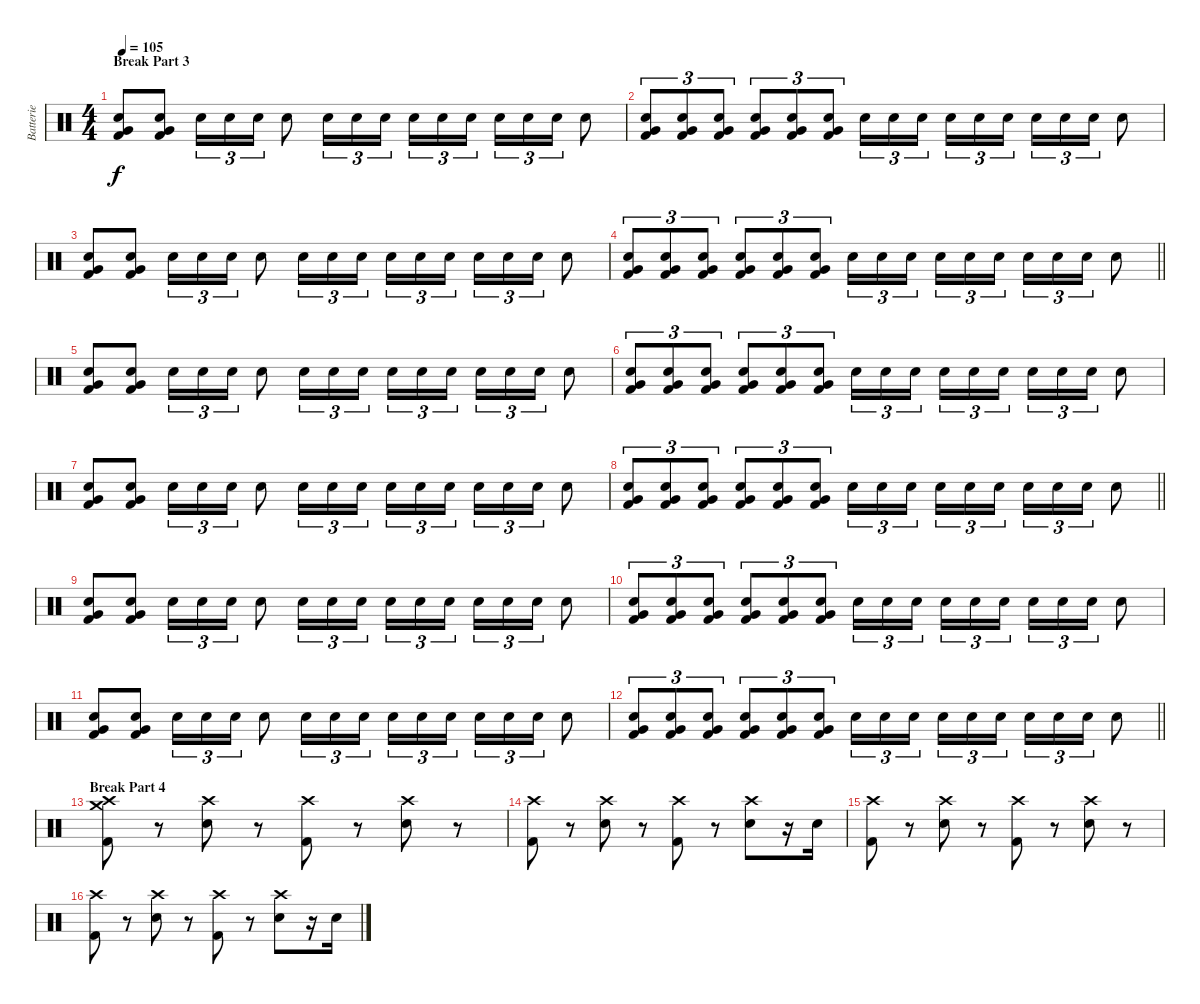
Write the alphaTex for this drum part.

\track ("Batterie" "Batterie") {instrument percussion}
\staff {score}
\articulation defaults
\ts (4 4)
\section ("" "Break Part 3")
\tempo 105
\clef neutral
\ks c
("Kick (hit) 2" "Electric Snare (hit)" "Very Low Tom (hit)").8{dy f} ("Kick (hit) 2" "Electric Snare (hit)" "Very Low Tom (hit)").8 "Electric Snare (hit)".16{tu (3 2)} "Electric Snare (hit)".16{tu (3 2)} "Electric Snare (hit)".16{tu (3 2)} "Electric Snare (hit)".8 "Electric Snare (hit)".16{tu (3 2)} "Electric Snare (hit)".16{tu (3 2)} "Electric Snare (hit)".16{tu (3 2) beam splitsecondary} "Electric Snare (hit)".16{tu (3 2)} "Electric Snare (hit)".16{tu (3 2)} "Electric Snare (hit)".16{tu (3 2)} "Electric Snare (hit)".16{tu (3 2)} "Electric Snare (hit)".16{tu (3 2)} "Electric Snare (hit)".16{tu (3 2)} "Electric Snare (hit)".8 |
("Kick (hit) 2" "Electric Snare (hit)" "Very Low Tom (hit)").8{tu (3 2)} ("Kick (hit) 2" "Electric Snare (hit)" "Very Low Tom (hit)").8{tu (3 2)} ("Kick (hit) 2" "Electric Snare (hit)" "Very Low Tom (hit)").8{tu (3 2)} ("Kick (hit) 2" "Electric Snare (hit)" "Very Low Tom (hit)").8{tu (3 2)} ("Kick (hit) 2" "Electric Snare (hit)" "Very Low Tom (hit)").8{tu (3 2)} ("Kick (hit) 2" "Electric Snare (hit)" "Very Low Tom (hit)").8{tu (3 2)} "Electric Snare (hit)".16{tu (3 2)} "Electric Snare (hit)".16{tu (3 2)} "Electric Snare (hit)".16{tu (3 2) beam splitsecondary} "Electric Snare (hit)".16{tu (3 2)} "Electric Snare (hit)".16{tu (3 2)} "Electric Snare (hit)".16{tu (3 2)} "Electric Snare (hit)".16{tu (3 2)} "Electric Snare (hit)".16{tu (3 2)} "Electric Snare (hit)".16{tu (3 2)} "Electric Snare (hit)".8 |
("Kick (hit) 2" "Electric Snare (hit)" "Very Low Tom (hit)").8 ("Kick (hit) 2" "Electric Snare (hit)" "Very Low Tom (hit)").8 "Electric Snare (hit)".16{tu (3 2)} "Electric Snare (hit)".16{tu (3 2)} "Electric Snare (hit)".16{tu (3 2)} "Electric Snare (hit)".8 "Electric Snare (hit)".16{tu (3 2)} "Electric Snare (hit)".16{tu (3 2)} "Electric Snare (hit)".16{tu (3 2) beam splitsecondary} "Electric Snare (hit)".16{tu (3 2)} "Electric Snare (hit)".16{tu (3 2)} "Electric Snare (hit)".16{tu (3 2)} "Electric Snare (hit)".16{tu (3 2)} "Electric Snare (hit)".16{tu (3 2)} "Electric Snare (hit)".16{tu (3 2)} "Electric Snare (hit)".8 |
\barLineRight lightlight
("Kick (hit) 2" "Electric Snare (hit)" "Very Low Tom (hit)").8{tu (3 2)} ("Kick (hit) 2" "Electric Snare (hit)" "Very Low Tom (hit)").8{tu (3 2)} ("Kick (hit) 2" "Electric Snare (hit)" "Very Low Tom (hit)").8{tu (3 2)} ("Kick (hit) 2" "Electric Snare (hit)" "Very Low Tom (hit)").8{tu (3 2)} ("Kick (hit) 2" "Electric Snare (hit)" "Very Low Tom (hit)").8{tu (3 2)} ("Kick (hit) 2" "Electric Snare (hit)" "Very Low Tom (hit)").8{tu (3 2)} "Electric Snare (hit)".16{tu (3 2)} "Electric Snare (hit)".16{tu (3 2)} "Electric Snare (hit)".16{tu (3 2) beam splitsecondary} "Electric Snare (hit)".16{tu (3 2)} "Electric Snare (hit)".16{tu (3 2)} "Electric Snare (hit)".16{tu (3 2)} "Electric Snare (hit)".16{tu (3 2)} "Electric Snare (hit)".16{tu (3 2)} "Electric Snare (hit)".16{tu (3 2)} "Electric Snare (hit)".8 |
("Kick (hit) 2" "Electric Snare (hit)" "Very Low Tom (hit)").8 ("Kick (hit) 2" "Electric Snare (hit)" "Very Low Tom (hit)").8 "Electric Snare (hit)".16{tu (3 2)} "Electric Snare (hit)".16{tu (3 2)} "Electric Snare (hit)".16{tu (3 2)} "Electric Snare (hit)".8 "Electric Snare (hit)".16{tu (3 2)} "Electric Snare (hit)".16{tu (3 2)} "Electric Snare (hit)".16{tu (3 2) beam splitsecondary} "Electric Snare (hit)".16{tu (3 2)} "Electric Snare (hit)".16{tu (3 2)} "Electric Snare (hit)".16{tu (3 2)} "Electric Snare (hit)".16{tu (3 2)} "Electric Snare (hit)".16{tu (3 2)} "Electric Snare (hit)".16{tu (3 2)} "Electric Snare (hit)".8 |
("Kick (hit) 2" "Electric Snare (hit)" "Very Low Tom (hit)").8{tu (3 2)} ("Kick (hit) 2" "Electric Snare (hit)" "Very Low Tom (hit)").8{tu (3 2)} ("Kick (hit) 2" "Electric Snare (hit)" "Very Low Tom (hit)").8{tu (3 2)} ("Kick (hit) 2" "Electric Snare (hit)" "Very Low Tom (hit)").8{tu (3 2)} ("Kick (hit) 2" "Electric Snare (hit)" "Very Low Tom (hit)").8{tu (3 2)} ("Kick (hit) 2" "Electric Snare (hit)" "Very Low Tom (hit)").8{tu (3 2)} "Electric Snare (hit)".16{tu (3 2)} "Electric Snare (hit)".16{tu (3 2)} "Electric Snare (hit)".16{tu (3 2) beam splitsecondary} "Electric Snare (hit)".16{tu (3 2)} "Electric Snare (hit)".16{tu (3 2)} "Electric Snare (hit)".16{tu (3 2)} "Electric Snare (hit)".16{tu (3 2)} "Electric Snare (hit)".16{tu (3 2)} "Electric Snare (hit)".16{tu (3 2)} "Electric Snare (hit)".8 |
("Kick (hit) 2" "Electric Snare (hit)" "Very Low Tom (hit)").8 ("Kick (hit) 2" "Electric Snare (hit)" "Very Low Tom (hit)").8 "Electric Snare (hit)".16{tu (3 2)} "Electric Snare (hit)".16{tu (3 2)} "Electric Snare (hit)".16{tu (3 2)} "Electric Snare (hit)".8 "Electric Snare (hit)".16{tu (3 2)} "Electric Snare (hit)".16{tu (3 2)} "Electric Snare (hit)".16{tu (3 2) beam splitsecondary} "Electric Snare (hit)".16{tu (3 2)} "Electric Snare (hit)".16{tu (3 2)} "Electric Snare (hit)".16{tu (3 2)} "Electric Snare (hit)".16{tu (3 2)} "Electric Snare (hit)".16{tu (3 2)} "Electric Snare (hit)".16{tu (3 2)} "Electric Snare (hit)".8 |
\barLineRight lightlight
("Kick (hit) 2" "Electric Snare (hit)" "Very Low Tom (hit)").8{tu (3 2)} ("Kick (hit) 2" "Electric Snare (hit)" "Very Low Tom (hit)").8{tu (3 2)} ("Kick (hit) 2" "Electric Snare (hit)" "Very Low Tom (hit)").8{tu (3 2)} ("Kick (hit) 2" "Electric Snare (hit)" "Very Low Tom (hit)").8{tu (3 2)} ("Kick (hit) 2" "Electric Snare (hit)" "Very Low Tom (hit)").8{tu (3 2)} ("Kick (hit) 2" "Electric Snare (hit)" "Very Low Tom (hit)").8{tu (3 2)} "Electric Snare (hit)".16{tu (3 2)} "Electric Snare (hit)".16{tu (3 2)} "Electric Snare (hit)".16{tu (3 2) beam splitsecondary} "Electric Snare (hit)".16{tu (3 2)} "Electric Snare (hit)".16{tu (3 2)} "Electric Snare (hit)".16{tu (3 2)} "Electric Snare (hit)".16{tu (3 2)} "Electric Snare (hit)".16{tu (3 2)} "Electric Snare (hit)".16{tu (3 2)} "Electric Snare (hit)".8 |
("Kick (hit) 2" "Electric Snare (hit)" "Very Low Tom (hit)").8 ("Kick (hit) 2" "Electric Snare (hit)" "Very Low Tom (hit)").8 "Electric Snare (hit)".16{tu (3 2)} "Electric Snare (hit)".16{tu (3 2)} "Electric Snare (hit)".16{tu (3 2)} "Electric Snare (hit)".8 "Electric Snare (hit)".16{tu (3 2)} "Electric Snare (hit)".16{tu (3 2)} "Electric Snare (hit)".16{tu (3 2) beam splitsecondary} "Electric Snare (hit)".16{tu (3 2)} "Electric Snare (hit)".16{tu (3 2)} "Electric Snare (hit)".16{tu (3 2)} "Electric Snare (hit)".16{tu (3 2)} "Electric Snare (hit)".16{tu (3 2)} "Electric Snare (hit)".16{tu (3 2)} "Electric Snare (hit)".8 |
("Kick (hit) 2" "Electric Snare (hit)" "Very Low Tom (hit)").8{tu (3 2)} ("Kick (hit) 2" "Electric Snare (hit)" "Very Low Tom (hit)").8{tu (3 2)} ("Kick (hit) 2" "Electric Snare (hit)" "Very Low Tom (hit)").8{tu (3 2)} ("Kick (hit) 2" "Electric Snare (hit)" "Very Low Tom (hit)").8{tu (3 2)} ("Kick (hit) 2" "Electric Snare (hit)" "Very Low Tom (hit)").8{tu (3 2)} ("Kick (hit) 2" "Electric Snare (hit)" "Very Low Tom (hit)").8{tu (3 2)} "Electric Snare (hit)".16{tu (3 2)} "Electric Snare (hit)".16{tu (3 2)} "Electric Snare (hit)".16{tu (3 2) beam splitsecondary} "Electric Snare (hit)".16{tu (3 2)} "Electric Snare (hit)".16{tu (3 2)} "Electric Snare (hit)".16{tu (3 2)} "Electric Snare (hit)".16{tu (3 2)} "Electric Snare (hit)".16{tu (3 2)} "Electric Snare (hit)".16{tu (3 2)} "Electric Snare (hit)".8 |
("Kick (hit) 2" "Electric Snare (hit)" "Very Low Tom (hit)").8 ("Kick (hit) 2" "Electric Snare (hit)" "Very Low Tom (hit)").8 "Electric Snare (hit)".16{tu (3 2)} "Electric Snare (hit)".16{tu (3 2)} "Electric Snare (hit)".16{tu (3 2)} "Electric Snare (hit)".8 "Electric Snare (hit)".16{tu (3 2)} "Electric Snare (hit)".16{tu (3 2)} "Electric Snare (hit)".16{tu (3 2) beam splitsecondary} "Electric Snare (hit)".16{tu (3 2)} "Electric Snare (hit)".16{tu (3 2)} "Electric Snare (hit)".16{tu (3 2)} "Electric Snare (hit)".16{tu (3 2)} "Electric Snare (hit)".16{tu (3 2)} "Electric Snare (hit)".16{tu (3 2)} "Electric Snare (hit)".8 |
\barLineRight lightlight
("Kick (hit) 2" "Electric Snare (hit)" "Very Low Tom (hit)").8{tu (3 2)} ("Kick (hit) 2" "Electric Snare (hit)" "Very Low Tom (hit)").8{tu (3 2)} ("Kick (hit) 2" "Electric Snare (hit)" "Very Low Tom (hit)").8{tu (3 2)} ("Kick (hit) 2" "Electric Snare (hit)" "Very Low Tom (hit)").8{tu (3 2)} ("Kick (hit) 2" "Electric Snare (hit)" "Very Low Tom (hit)").8{tu (3 2)} ("Kick (hit) 2" "Electric Snare (hit)" "Very Low Tom (hit)").8{tu (3 2)} "Electric Snare (hit)".16{tu (3 2)} "Electric Snare (hit)".16{tu (3 2)} "Electric Snare (hit)".16{tu (3 2) beam splitsecondary} "Electric Snare (hit)".16{tu (3 2)} "Electric Snare (hit)".16{tu (3 2)} "Electric Snare (hit)".16{tu (3 2)} "Electric Snare (hit)".16{tu (3 2)} "Electric Snare (hit)".16{tu (3 2)} "Electric Snare (hit)".16{tu (3 2)} "Electric Snare (hit)".8 |
\section ("" "Break Part 4")
("Kick (hit) 2" "Crash medium (hit)" "Crash high (hit)").8 r.8 ("Electric Snare (hit)" "Crash high (hit)").8 r.8 ("Kick (hit) 2" "Crash high (hit)").8 r.8 ("Electric Snare (hit)" "Crash high (hit)").8 r.8 |
("Kick (hit) 2" "Crash high (hit)").8 r.8 ("Electric Snare (hit)" "Crash high (hit)").8 r.8 ("Kick (hit) 2" "Crash high (hit)").8 r.8 ("Electric Snare (hit)" "Crash high (hit)").8 r.16 "Electric Snare (hit)".16 |
("Kick (hit) 2" "Crash high (hit)").8 r.8 ("Electric Snare (hit)" "Crash high (hit)").8 r.8 ("Kick (hit) 2" "Crash high (hit)").8 r.8 ("Electric Snare (hit)" "Crash high (hit)").8 r.8 |
("Kick (hit) 2" "Crash high (hit)").8 r.8 ("Electric Snare (hit)" "Crash high (hit)").8 r.8 ("Kick (hit) 2" "Crash high (hit)").8 r.8 ("Electric Snare (hit)" "Crash high (hit)").8 r.16 "Electric Snare (hit)".16
